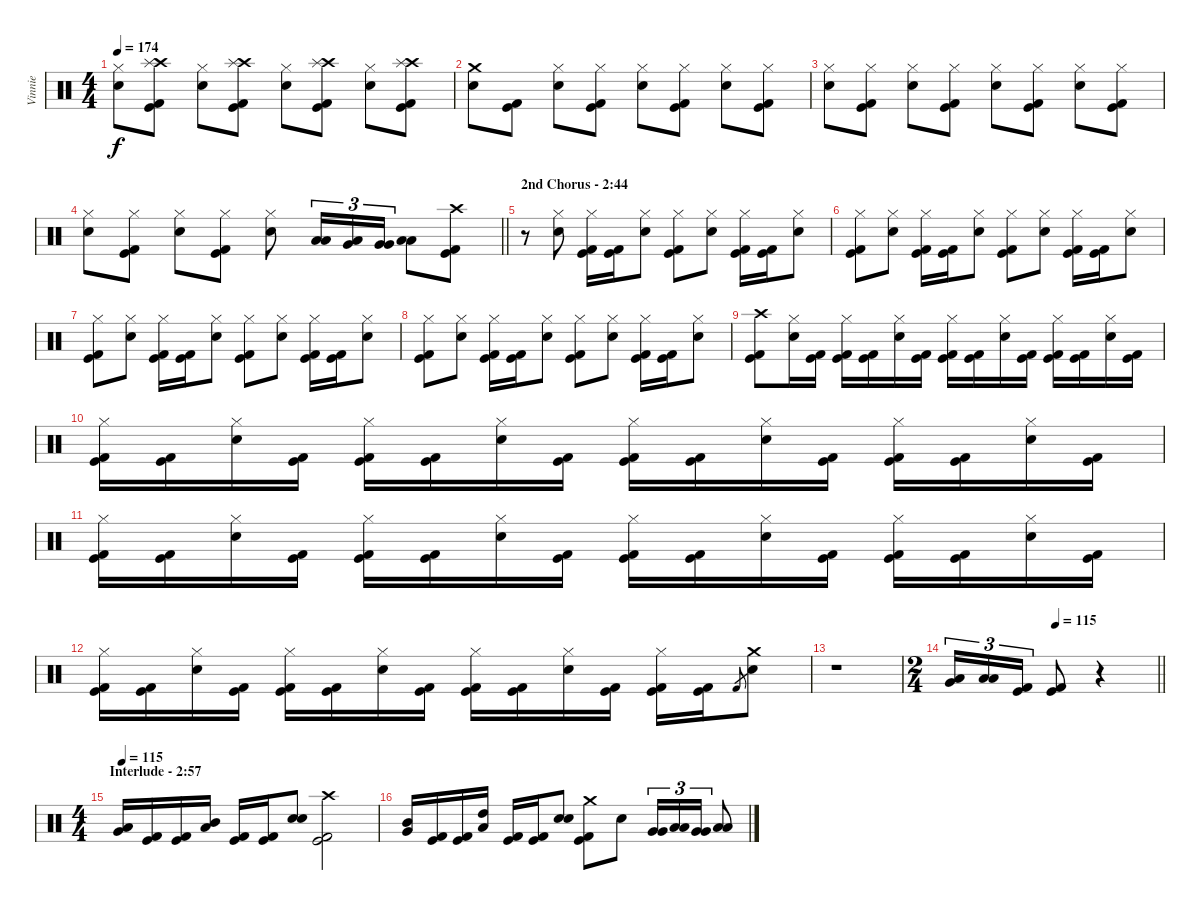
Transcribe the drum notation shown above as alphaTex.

\track ("Vinnie" "Vinnie") {instrument percussion}
\staff {score}
\articulation defaults
\ts (4 4)
\tempo 174
\clef neutral
\ks c
("Hi-Hat (closed)" "Electric Snare (hit)").8{dy f} ("Crash high (hit)" "Splash (hit)" "Kick (hit)" "Kick (hit) 2").8 ("Hi-Hat (closed)" "Electric Snare (hit)").8 ("Crash high (hit)" "Splash (hit)" "Kick (hit)" "Kick (hit) 2").8 ("Hi-Hat (closed)" "Electric Snare (hit)").8 ("Crash high (hit)" "Splash (hit)" "Kick (hit)" "Kick (hit) 2").8 ("Hi-Hat (closed)" "Electric Snare (hit)").8 ("Crash high (hit)" "Splash (hit)" "Kick (hit)" "Kick (hit) 2").8 |
("Crash medium (hit)" "Electric Snare (hit)").8 ("Kick (hit)" "Kick (hit) 2").8 ("Hi-Hat (closed)" "Electric Snare (hit)").8 ("Hi-Hat (closed)" "Kick (hit)" "Kick (hit) 2").8 ("Hi-Hat (closed)" "Electric Snare (hit)").8 ("Hi-Hat (closed)" "Kick (hit)" "Kick (hit) 2").8 ("Hi-Hat (closed)" "Electric Snare (hit)").8 ("Hi-Hat (closed)" "Kick (hit)" "Kick (hit) 2").8 |
("Hi-Hat (closed)" "Electric Snare (hit)").8 ("Hi-Hat (closed)" "Kick (hit)" "Kick (hit) 2").8 ("Hi-Hat (closed)" "Electric Snare (hit)").8 ("Hi-Hat (closed)" "Kick (hit)" "Kick (hit) 2").8 ("Hi-Hat (closed)" "Electric Snare (hit)").8 ("Hi-Hat (closed)" "Kick (hit)" "Kick (hit) 2").8 ("Hi-Hat (closed)" "Electric Snare (hit)").8 ("Hi-Hat (closed)" "Kick (hit)" "Kick (hit) 2").8 |
\barLineRight lightlight
("Hi-Hat (closed)" "Electric Snare (hit)").8 ("Hi-Hat (closed)" "Kick (hit)" "Kick (hit) 2").8 ("Hi-Hat (closed)" "Electric Snare (hit)").8 ("Hi-Hat (closed)" "Kick (hit)" "Kick (hit) 2").8 ("Hi-Hat (closed)" "Electric Snare (hit)").8 ("Low Tom (hit)" "Low Tom (hit)").16{tu (3 2)} ("Low Tom (hit)" "Very Low Tom (hit)").16{tu (3 2)} ("Very Low Tom (hit)" "Very Low Tom (hit)").16{tu (3 2)} ("Low Floor Tom (hit)" "Low Floor Tom (hit)").8 ("Crash high (hit)" "Kick (hit)" "Kick (hit) 2").8 |
\section ("" "2nd Chorus - 2:44")
r.8 ("Hi-Hat (closed)" "Electric Snare (hit)").8 ("Hi-Hat (closed)" "Kick (hit)" "Kick (hit) 2").16 ("Kick (hit)" "Kick (hit) 2").16 ("Hi-Hat (closed)" "Electric Snare (hit)").8 ("Hi-Hat (closed)" "Kick (hit)" "Kick (hit) 2").8 ("Hi-Hat (closed)" "Electric Snare (hit)").8 ("Hi-Hat (closed)" "Kick (hit)" "Kick (hit) 2").16 ("Kick (hit)" "Kick (hit) 2").16 ("Hi-Hat (closed)" "Electric Snare (hit)").8 |
("Hi-Hat (closed)" "Kick (hit)" "Kick (hit) 2").8 ("Hi-Hat (closed)" "Electric Snare (hit)").8 ("Hi-Hat (closed)" "Kick (hit)" "Kick (hit) 2").16 ("Kick (hit)" "Kick (hit) 2").16 ("Hi-Hat (closed)" "Electric Snare (hit)").8 ("Hi-Hat (closed)" "Kick (hit)" "Kick (hit) 2").8 ("Hi-Hat (closed)" "Electric Snare (hit)").8 ("Hi-Hat (closed)" "Kick (hit)" "Kick (hit) 2").16 ("Kick (hit)" "Kick (hit) 2").16 ("Hi-Hat (closed)" "Electric Snare (hit)").8 |
("Hi-Hat (closed)" "Kick (hit)" "Kick (hit) 2").8 ("Hi-Hat (closed)" "Electric Snare (hit)").8 ("Hi-Hat (closed)" "Kick (hit)" "Kick (hit) 2").16 ("Kick (hit)" "Kick (hit) 2").16 ("Hi-Hat (closed)" "Electric Snare (hit)").8 ("Hi-Hat (closed)" "Kick (hit)" "Kick (hit) 2").8 ("Hi-Hat (closed)" "Electric Snare (hit)").8 ("Hi-Hat (closed)" "Kick (hit)" "Kick (hit) 2").16 ("Kick (hit)" "Kick (hit) 2").16 ("Hi-Hat (closed)" "Electric Snare (hit)").8 |
("Hi-Hat (closed)" "Kick (hit)" "Kick (hit) 2").8 ("Hi-Hat (closed)" "Electric Snare (hit)").8 ("Hi-Hat (closed)" "Kick (hit)" "Kick (hit) 2").16 ("Kick (hit)" "Kick (hit) 2").16 ("Hi-Hat (closed)" "Electric Snare (hit)").8 ("Hi-Hat (closed)" "Kick (hit)" "Kick (hit) 2").8 ("Hi-Hat (closed)" "Electric Snare (hit)").8 ("Hi-Hat (closed)" "Kick (hit)" "Kick (hit) 2").16 ("Kick (hit)" "Kick (hit) 2").16 ("Hi-Hat (closed)" "Electric Snare (hit)").8 |
("Crash high (hit)" "Kick (hit)" "Kick (hit) 2").8 ("Hi-Hat (closed)" "Electric Snare (hit)").16 ("Kick (hit)" "Kick (hit) 2").16 ("Hi-Hat (closed)" "Kick (hit)" "Kick (hit) 2").16 ("Kick (hit)" "Kick (hit) 2").16 ("Hi-Hat (closed)" "Electric Snare (hit)").16 ("Kick (hit)" "Kick (hit) 2").16 ("Hi-Hat (closed)" "Kick (hit)" "Kick (hit) 2").16 ("Kick (hit)" "Kick (hit) 2").16 ("Hi-Hat (closed)" "Electric Snare (hit)").16 ("Kick (hit)" "Kick (hit) 2").16 ("Hi-Hat (closed)" "Kick (hit)" "Kick (hit) 2").16 ("Kick (hit)" "Kick (hit) 2").16 ("Hi-Hat (closed)" "Electric Snare (hit)").16 ("Kick (hit)" "Kick (hit) 2").16 |
("Hi-Hat (closed)" "Kick (hit)" "Kick (hit) 2").16 ("Kick (hit)" "Kick (hit) 2").16 ("Hi-Hat (closed)" "Electric Snare (hit)").16 ("Kick (hit)" "Kick (hit) 2").16 ("Hi-Hat (closed)" "Kick (hit)" "Kick (hit) 2").16 ("Kick (hit)" "Kick (hit) 2").16 ("Hi-Hat (closed)" "Electric Snare (hit)").16 ("Kick (hit)" "Kick (hit) 2").16 ("Hi-Hat (closed)" "Kick (hit)" "Kick (hit) 2").16 ("Kick (hit)" "Kick (hit) 2").16 ("Hi-Hat (closed)" "Electric Snare (hit)").16 ("Kick (hit)" "Kick (hit) 2").16 ("Hi-Hat (closed)" "Kick (hit)" "Kick (hit) 2").16 ("Kick (hit)" "Kick (hit) 2").16 ("Hi-Hat (closed)" "Electric Snare (hit)").16 ("Kick (hit)" "Kick (hit) 2").16 |
("Hi-Hat (closed)" "Kick (hit)" "Kick (hit) 2").16 ("Kick (hit)" "Kick (hit) 2").16 ("Hi-Hat (closed)" "Electric Snare (hit)").16 ("Kick (hit)" "Kick (hit) 2").16 ("Hi-Hat (closed)" "Kick (hit)" "Kick (hit) 2").16 ("Kick (hit)" "Kick (hit) 2").16 ("Hi-Hat (closed)" "Electric Snare (hit)").16 ("Kick (hit)" "Kick (hit) 2").16 ("Hi-Hat (closed)" "Kick (hit)" "Kick (hit) 2").16 ("Kick (hit)" "Kick (hit) 2").16 ("Hi-Hat (closed)" "Electric Snare (hit)").16 ("Kick (hit)" "Kick (hit) 2").16 ("Hi-Hat (closed)" "Kick (hit)" "Kick (hit) 2").16 ("Kick (hit)" "Kick (hit) 2").16 ("Hi-Hat (closed)" "Electric Snare (hit)").16 ("Kick (hit)" "Kick (hit) 2").16 |
("Hi-Hat (closed)" "Kick (hit)" "Kick (hit) 2").16 ("Kick (hit)" "Kick (hit) 2").16 ("Hi-Hat (closed)" "Electric Snare (hit)").16 ("Kick (hit)" "Kick (hit) 2").16 ("Hi-Hat (closed)" "Kick (hit)" "Kick (hit) 2").16 ("Kick (hit)" "Kick (hit) 2").16 ("Hi-Hat (closed)" "Electric Snare (hit)").16 ("Kick (hit)" "Kick (hit) 2").16 ("Hi-Hat (closed)" "Kick (hit)" "Kick (hit) 2").16 ("Kick (hit)" "Kick (hit) 2").16 ("Hi-Hat (closed)" "Electric Snare (hit)").16 ("Kick (hit)" "Kick (hit) 2").16 ("Hi-Hat (closed)" "Kick (hit)" "Kick (hit) 2").16 ("Kick (hit)" "Kick (hit) 2").16 "Kick (hit) 2".8{gr} ("Crash medium (hit)" "Electric Snare (hit)").8 |
r.1{volume 16} |
\ts (2 4)
\tempo (115 0.5)
\barLineRight lightlight
("Low Floor Tom (hit)" "Very Low Tom (hit)").16{tu (3 2)} ("Low Floor Tom (hit)" "Low Floor Tom (hit)").16{tu (3 2)} ("Kick (hit)" "Kick (hit) 2").16{tu (3 2)} ("Kick (hit)" "Kick (hit) 2").8 r.4 |
\ts (4 4)
\section ("" "Interlude - 2:57")
\tempo 115
("Low Tom (hit)" "Very Low Tom (hit)").16{bd 480} ("Kick (hit)" "Kick (hit) 2").16 ("Kick (hit)" "Kick (hit) 2").16 ("Mid Tom (hit)" "Low Tom (hit)").16{bd 480} ("Kick (hit)" "Kick (hit) 2").16 ("Kick (hit)" "Kick (hit) 2").16 ("Electric Snare (hit)" "Electric Snare (hit)").8{bd 480} ("Crash high (hit)" "Kick (hit)" "Kick (hit) 2").2 |
("Very Low Tom (hit)" "Mid Tom (hit)").16{bd 480} ("Kick (hit)" "Kick (hit) 2").16 ("Kick (hit)" "Kick (hit) 2").16 ("Low Tom (hit)" "High Tom (hit)").16{bd 480} ("Kick (hit)" "Kick (hit) 2").16 ("Kick (hit)" "Kick (hit) 2").16 ("Electric Snare (hit)" "Electric Snare (hit)").8{bd 480} ("Crash medium (hit)" "Kick (hit)" "Kick (hit) 2").8 "Electric Snare (hit)".8 ("Very Low Tom (hit)" "Very Low Tom (hit)").16{tu (3 2)} ("Low Floor Tom (hit)" "Low Floor Tom (hit)").16{tu (3 2)} ("Very Low Tom (hit)" "Very Low Tom (hit)").16{tu (3 2)} ("Low Tom (hit)" "Low Tom (hit)").8
